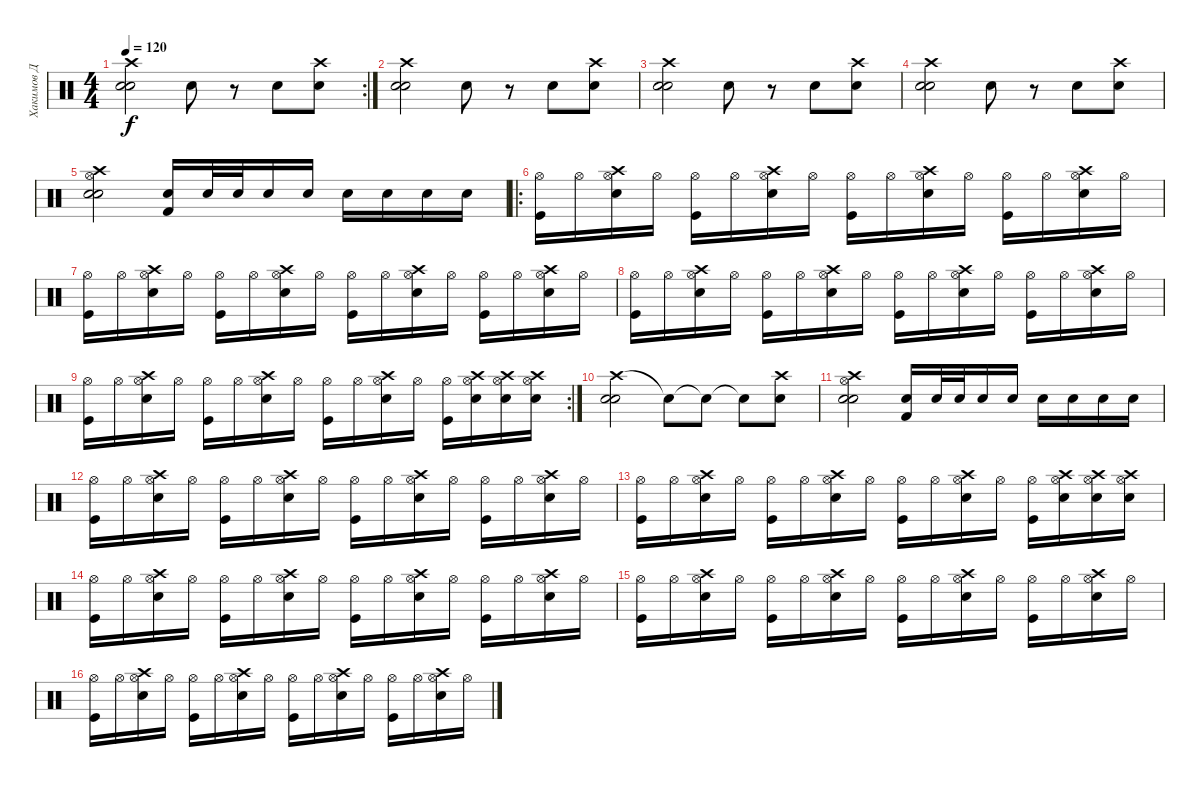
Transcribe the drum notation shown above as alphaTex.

\track ("Хакимов Д" "Хакимов Д") {instrument percussion}
\staff {score}
\articulation defaults
\rc 2
\ts (4 4)
\tempo 120
\clef neutral
\ks c
("Crash high (hit)" "Snare (hit) 2" "Electric Snare (hit)").2{dy f} "Snare (hit) 2".8 r.8 "Snare (hit) 2".8 ("Crash high (hit)" "Snare (hit) 2").8 |
("Crash high (hit)" "Snare (hit) 2" "Electric Snare (hit)").2 "Snare (hit) 2".8 r.8 "Snare (hit) 2".8 ("Crash high (hit)" "Snare (hit) 2").8 |
("Crash high (hit)" "Snare (hit) 2" "Electric Snare (hit)").2 "Snare (hit) 2".8 r.8 "Snare (hit) 2".8 ("Crash high (hit)" "Snare (hit) 2").8 |
("Crash high (hit)" "Snare (hit) 2" "Electric Snare (hit)").2 "Snare (hit) 2".8 r.8 "Snare (hit) 2".8 ("Crash high (hit)" "Snare (hit) 2").8 |
("Hi-Hat (open)" "Crash high (hit)" "Snare (hit) 2" "Electric Snare (hit)").2 ("Snare (hit) 2" "Kick (hit) 2").16 "Snare (hit) 2".32 "Snare (hit) 2".32 "Snare (hit) 2".16 "Snare (hit) 2".16 "Snare (hit) 2".16 "Snare (hit) 2".16 "Snare (hit) 2".16 "Snare (hit) 2".16 |
\ro
("Hi-Hat (open)" "Kick (hit)").16 "Hi-Hat (open)".16 ("Hi-Hat (open)" "Electric Snare (hit)" "Crash high (hit)").16 "Hi-Hat (open)".16 ("Hi-Hat (open)" "Kick (hit)").16 "Hi-Hat (open)".16 ("Hi-Hat (open)" "Electric Snare (hit)" "Crash high (hit)").16 "Hi-Hat (open)".16 ("Hi-Hat (open)" "Kick (hit)").16 "Hi-Hat (open)".16 ("Hi-Hat (open)" "Electric Snare (hit)" "Crash high (hit)").16 "Hi-Hat (open)".16 ("Hi-Hat (open)" "Kick (hit)").16 "Hi-Hat (open)".16 ("Hi-Hat (open)" "Electric Snare (hit)" "Crash high (hit)").16 "Hi-Hat (open)".16 |
("Hi-Hat (open)" "Kick (hit)").16 "Hi-Hat (open)".16 ("Hi-Hat (open)" "Electric Snare (hit)" "Crash high (hit)").16 "Hi-Hat (open)".16 ("Hi-Hat (open)" "Kick (hit)").16 "Hi-Hat (open)".16 ("Hi-Hat (open)" "Electric Snare (hit)" "Crash high (hit)").16 "Hi-Hat (open)".16 ("Hi-Hat (open)" "Kick (hit)").16 "Hi-Hat (open)".16 ("Hi-Hat (open)" "Electric Snare (hit)" "Crash high (hit)").16 "Hi-Hat (open)".16 ("Hi-Hat (open)" "Kick (hit)").16 "Hi-Hat (open)".16 ("Hi-Hat (open)" "Electric Snare (hit)" "Crash high (hit)").16 "Hi-Hat (open)".16 |
("Hi-Hat (open)" "Kick (hit)").16 "Hi-Hat (open)".16 ("Hi-Hat (open)" "Electric Snare (hit)" "Crash high (hit)").16 "Hi-Hat (open)".16 ("Hi-Hat (open)" "Kick (hit)").16 "Hi-Hat (open)".16 ("Hi-Hat (open)" "Electric Snare (hit)" "Crash high (hit)").16 "Hi-Hat (open)".16 ("Hi-Hat (open)" "Kick (hit)").16 "Hi-Hat (open)".16 ("Hi-Hat (open)" "Electric Snare (hit)" "Crash high (hit)").16 "Hi-Hat (open)".16 ("Hi-Hat (open)" "Kick (hit)").16 "Hi-Hat (open)".16 ("Hi-Hat (open)" "Electric Snare (hit)" "Crash high (hit)").16 "Hi-Hat (open)".16 |
\rc 2
("Hi-Hat (open)" "Kick (hit)").16 "Hi-Hat (open)".16 ("Hi-Hat (open)" "Electric Snare (hit)" "Crash high (hit)").16 "Hi-Hat (open)".16 ("Hi-Hat (open)" "Kick (hit)").16 "Hi-Hat (open)".16 ("Hi-Hat (open)" "Electric Snare (hit)" "Crash high (hit)").16 "Hi-Hat (open)".16 ("Hi-Hat (open)" "Kick (hit)").16 "Hi-Hat (open)".16 ("Hi-Hat (open)" "Electric Snare (hit)" "Crash high (hit)").16 "Hi-Hat (open)".16 ("Hi-Hat (open)" "Kick (hit)").16 ("Hi-Hat (open)" "Snare (hit) 2" "Crash high (hit)").16 ("Hi-Hat (open)" "Electric Snare (hit)" "Crash high (hit)").16 ("Hi-Hat (open)" "Snare (hit) 2" "Crash high (hit)").16 |
("Crash high (hit)" "Snare (hit) 2" "Electric Snare (hit)").2 "Snare (hit)"{t}.8 "Snare (hit)"{t}.8 "Snare (hit)"{t}.8 ("Crash high (hit)" "Snare (hit) 2").8 |
("Hi-Hat (open)" "Crash high (hit)" "Snare (hit) 2" "Electric Snare (hit)").2 ("Snare (hit) 2" "Kick (hit) 2").16 "Snare (hit) 2".32 "Snare (hit) 2".32 "Snare (hit) 2".16 "Snare (hit) 2".16 "Snare (hit) 2".16 "Snare (hit) 2".16 "Snare (hit) 2".16 "Snare (hit) 2".16 |
("Hi-Hat (open)" "Kick (hit)").16 "Hi-Hat (open)".16 ("Hi-Hat (open)" "Electric Snare (hit)" "Crash high (hit)").16 "Hi-Hat (open)".16 ("Hi-Hat (open)" "Kick (hit)").16 "Hi-Hat (open)".16 ("Hi-Hat (open)" "Electric Snare (hit)" "Crash high (hit)").16 "Hi-Hat (open)".16 ("Hi-Hat (open)" "Kick (hit)").16 "Hi-Hat (open)".16 ("Hi-Hat (open)" "Electric Snare (hit)" "Crash high (hit)").16 "Hi-Hat (open)".16 ("Hi-Hat (open)" "Kick (hit)").16 "Hi-Hat (open)".16 ("Hi-Hat (open)" "Electric Snare (hit)" "Crash high (hit)").16 "Hi-Hat (open)".16 |
("Hi-Hat (open)" "Kick (hit)").16 "Hi-Hat (open)".16 ("Hi-Hat (open)" "Electric Snare (hit)" "Crash high (hit)").16 "Hi-Hat (open)".16 ("Hi-Hat (open)" "Kick (hit)").16 "Hi-Hat (open)".16 ("Hi-Hat (open)" "Electric Snare (hit)" "Crash high (hit)").16 "Hi-Hat (open)".16 ("Hi-Hat (open)" "Kick (hit)").16 "Hi-Hat (open)".16 ("Hi-Hat (open)" "Electric Snare (hit)" "Crash high (hit)").16 "Hi-Hat (open)".16 ("Hi-Hat (open)" "Kick (hit)").16 ("Hi-Hat (open)" "Snare (hit) 2" "Crash high (hit)").16 ("Hi-Hat (open)" "Electric Snare (hit)" "Crash high (hit)").16 ("Hi-Hat (open)" "Snare (hit) 2" "Crash high (hit)").16 |
("Hi-Hat (open)" "Kick (hit)").16 "Hi-Hat (open)".16 ("Hi-Hat (open)" "Electric Snare (hit)" "Crash high (hit)").16 "Hi-Hat (open)".16 ("Hi-Hat (open)" "Kick (hit)").16 "Hi-Hat (open)".16 ("Hi-Hat (open)" "Electric Snare (hit)" "Crash high (hit)").16 "Hi-Hat (open)".16 ("Hi-Hat (open)" "Kick (hit)").16 "Hi-Hat (open)".16 ("Hi-Hat (open)" "Electric Snare (hit)" "Crash high (hit)").16 "Hi-Hat (open)".16 ("Hi-Hat (open)" "Kick (hit)").16 "Hi-Hat (open)".16 ("Hi-Hat (open)" "Electric Snare (hit)" "Crash high (hit)").16 "Hi-Hat (open)".16 |
("Hi-Hat (open)" "Kick (hit)").16 "Hi-Hat (open)".16 ("Hi-Hat (open)" "Electric Snare (hit)" "Crash high (hit)").16 "Hi-Hat (open)".16 ("Hi-Hat (open)" "Kick (hit)").16 "Hi-Hat (open)".16 ("Hi-Hat (open)" "Electric Snare (hit)" "Crash high (hit)").16 "Hi-Hat (open)".16 ("Hi-Hat (open)" "Kick (hit)").16 "Hi-Hat (open)".16 ("Hi-Hat (open)" "Electric Snare (hit)" "Crash high (hit)").16 "Hi-Hat (open)".16 ("Hi-Hat (open)" "Kick (hit)").16 "Hi-Hat (open)".16 ("Hi-Hat (open)" "Electric Snare (hit)" "Crash high (hit)").16 "Hi-Hat (open)".16 |
("Hi-Hat (open)" "Kick (hit)").16 "Hi-Hat (open)".16 ("Hi-Hat (open)" "Electric Snare (hit)" "Crash high (hit)").16 "Hi-Hat (open)".16 ("Hi-Hat (open)" "Kick (hit)").16 "Hi-Hat (open)".16 ("Hi-Hat (open)" "Electric Snare (hit)" "Crash high (hit)").16 "Hi-Hat (open)".16 ("Hi-Hat (open)" "Kick (hit)").16 "Hi-Hat (open)".16 ("Hi-Hat (open)" "Electric Snare (hit)" "Crash high (hit)").16 "Hi-Hat (open)".16 ("Hi-Hat (open)" "Kick (hit)").16 "Hi-Hat (open)".16 ("Hi-Hat (open)" "Electric Snare (hit)" "Crash high (hit)").16 "Hi-Hat (open)".16
